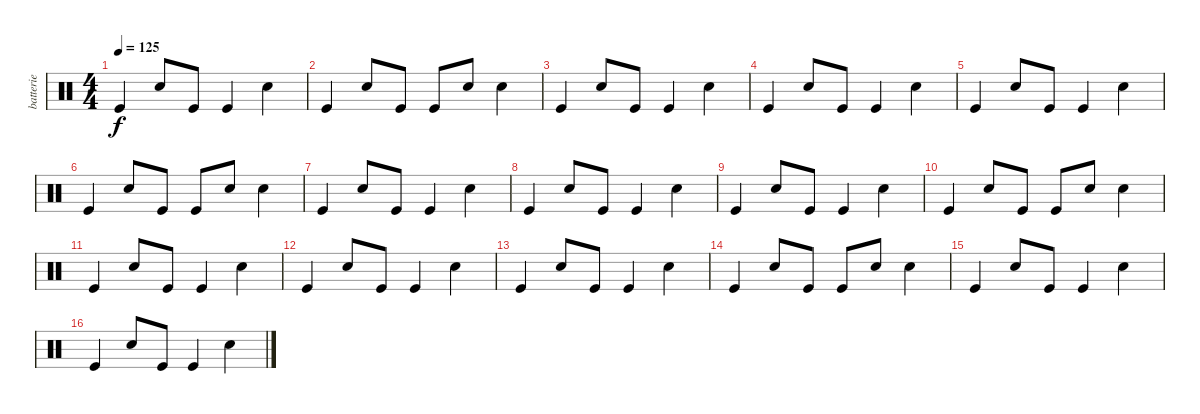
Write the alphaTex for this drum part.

\track ("batterie" "batterie") {instrument percussion}
\staff {score}
\articulation defaults
\ts (4 4)
\tempo 125
\clef neutral
\ks c "Kick (hit)".4{dy f} "Snare (hit) 2".8 "Kick (hit)".8 "Kick (hit)".4 "Snare (hit) 2".4
|
"Kick (hit)".4 "Snare (hit) 2".8 "Kick (hit)".8 "Kick (hit)".8 "Snare (hit) 2".8 "Snare (hit) 2".4 |
"Kick (hit)".4 "Snare (hit) 2".8 "Kick (hit)".8 "Kick (hit)".4 "Snare (hit) 2".4 |
"Kick (hit)".4 "Snare (hit) 2".8 "Kick (hit)".8 "Kick (hit)".4 "Snare (hit) 2".4 |
"Kick (hit)".4 "Snare (hit) 2".8 "Kick (hit)".8 "Kick (hit)".4 "Snare (hit) 2".4 |
"Kick (hit)".4 "Snare (hit) 2".8 "Kick (hit)".8 "Kick (hit)".8 "Snare (hit) 2".8 "Snare (hit) 2".4 |
"Kick (hit)".4 "Snare (hit) 2".8 "Kick (hit)".8 "Kick (hit)".4 "Snare (hit) 2".4 |
"Kick (hit)".4 "Snare (hit) 2".8 "Kick (hit)".8 "Kick (hit)".4 "Snare (hit) 2".4 |
"Kick (hit)".4 "Snare (hit) 2".8 "Kick (hit)".8 "Kick (hit)".4 "Snare (hit) 2".4 |
"Kick (hit)".4 "Snare (hit) 2".8 "Kick (hit)".8 "Kick (hit)".8 "Snare (hit) 2".8 "Snare (hit) 2".4 |
"Kick (hit)".4 "Snare (hit) 2".8 "Kick (hit)".8 "Kick (hit)".4 "Snare (hit) 2".4 |
"Kick (hit)".4 "Snare (hit) 2".8 "Kick (hit)".8 "Kick (hit)".4 "Snare (hit) 2".4 |
"Kick (hit)".4 "Snare (hit) 2".8 "Kick (hit)".8 "Kick (hit)".4 "Snare (hit) 2".4 |
"Kick (hit)".4 "Snare (hit) 2".8 "Kick (hit)".8 "Kick (hit)".8 "Snare (hit) 2".8 "Snare (hit) 2".4 |
"Kick (hit)".4 "Snare (hit) 2".8 "Kick (hit)".8 "Kick (hit)".4 "Snare (hit) 2".4 |
"Kick (hit)".4 "Snare (hit) 2".8 "Kick (hit)".8 "Kick (hit)".4 "Snare (hit) 2".4
